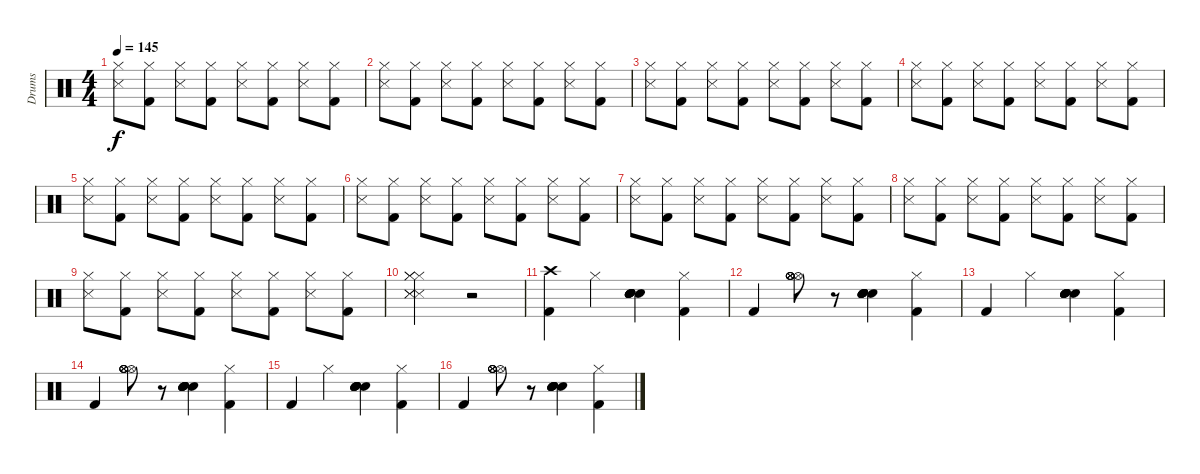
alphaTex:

\track ("Drums" "Drums") {instrument percussion}
\staff {score}
\articulation defaults
\ts (4 4)
\tempo 145
\clef neutral
\ks c
("Snare (side stick) 3" "Hi-Hat (closed)").8{dy f} ("Hi-Hat (closed)" "Kick (hit) 2").8 ("Snare (side stick) 3" "Hi-Hat (closed)").8 ("Hi-Hat (closed)" "Kick (hit) 2").8 ("Snare (side stick) 3" "Hi-Hat (closed)").8 ("Hi-Hat (closed)" "Kick (hit) 2").8 ("Snare (side stick) 3" "Hi-Hat (closed)").8 ("Hi-Hat (closed)" "Kick (hit) 2").8 |
("Snare (side stick) 3" "Hi-Hat (closed)").8 ("Hi-Hat (closed)" "Kick (hit) 2").8 ("Snare (side stick) 3" "Hi-Hat (closed)").8 ("Hi-Hat (closed)" "Kick (hit) 2").8 ("Snare (side stick) 3" "Hi-Hat (closed)").8 ("Hi-Hat (closed)" "Kick (hit) 2").8 ("Snare (side stick) 3" "Hi-Hat (closed)").8 ("Hi-Hat (closed)" "Kick (hit) 2").8 |
("Snare (side stick) 3" "Hi-Hat (closed)").8 ("Hi-Hat (closed)" "Kick (hit) 2").8 ("Snare (side stick) 3" "Hi-Hat (closed)").8 ("Hi-Hat (closed)" "Kick (hit) 2").8 ("Snare (side stick) 3" "Hi-Hat (closed)").8 ("Hi-Hat (closed)" "Kick (hit) 2").8 ("Snare (side stick) 3" "Hi-Hat (closed)").8 ("Hi-Hat (closed)" "Kick (hit) 2").8 |
("Snare (side stick) 3" "Hi-Hat (closed)").8 ("Hi-Hat (closed)" "Kick (hit) 2").8 ("Snare (side stick) 3" "Hi-Hat (closed)").8 ("Hi-Hat (closed)" "Kick (hit) 2").8 ("Snare (side stick) 3" "Hi-Hat (closed)").8 ("Hi-Hat (closed)" "Kick (hit) 2").8 ("Snare (side stick) 3" "Hi-Hat (closed)").8 ("Hi-Hat (closed)" "Kick (hit) 2").8 |
("Snare (side stick) 3" "Hi-Hat (closed)").8 ("Hi-Hat (closed)" "Kick (hit) 2").8 ("Snare (side stick) 3" "Hi-Hat (closed)").8 ("Hi-Hat (closed)" "Kick (hit) 2").8 ("Snare (side stick) 3" "Hi-Hat (closed)").8 ("Hi-Hat (closed)" "Kick (hit) 2").8 ("Snare (side stick) 3" "Hi-Hat (closed)").8 ("Hi-Hat (closed)" "Kick (hit) 2").8 |
("Snare (side stick) 3" "Hi-Hat (closed)").8 ("Hi-Hat (closed)" "Kick (hit) 2").8 ("Snare (side stick) 3" "Hi-Hat (closed)").8 ("Hi-Hat (closed)" "Kick (hit) 2").8 ("Snare (side stick) 3" "Hi-Hat (closed)").8 ("Hi-Hat (closed)" "Kick (hit) 2").8 ("Snare (side stick) 3" "Hi-Hat (closed)").8 ("Hi-Hat (closed)" "Kick (hit) 2").8 |
("Snare (side stick) 3" "Hi-Hat (closed)").8 ("Hi-Hat (closed)" "Kick (hit) 2").8 ("Snare (side stick) 3" "Hi-Hat (closed)").8 ("Hi-Hat (closed)" "Kick (hit) 2").8 ("Snare (side stick) 3" "Hi-Hat (closed)").8 ("Hi-Hat (closed)" "Kick (hit) 2").8 ("Snare (side stick) 3" "Hi-Hat (closed)").8 ("Hi-Hat (closed)" "Kick (hit) 2").8 |
("Snare (side stick) 3" "Hi-Hat (closed)").8 ("Hi-Hat (closed)" "Kick (hit) 2").8 ("Snare (side stick) 3" "Hi-Hat (closed)").8 ("Hi-Hat (closed)" "Kick (hit) 2").8 ("Snare (side stick) 3" "Hi-Hat (closed)").8 ("Hi-Hat (closed)" "Kick (hit) 2").8 ("Snare (side stick) 3" "Hi-Hat (closed)").8 ("Hi-Hat (closed)" "Kick (hit) 2").8 |
("Snare (side stick) 3" "Hi-Hat (closed)").8 ("Hi-Hat (closed)" "Kick (hit) 2").8 ("Snare (side stick) 3" "Hi-Hat (closed)").8 ("Hi-Hat (closed)" "Kick (hit) 2").8 ("Snare (side stick) 3" "Hi-Hat (closed)").8 ("Hi-Hat (closed)" "Kick (hit) 2").8 ("Snare (side stick) 3" "Hi-Hat (closed)").8 ("Hi-Hat (closed)" "Kick (hit) 2").8 |
("Hi-Hat (closed)" "Snare (side stick) 3" "Snare (side stick) 3" "Snare (side stick) 3" "Hi-Hat (closed)" "Hi-Hat (closed)").2 r.2 |
("Kick (hit) 2" "Crash high (hit)").4 "Hi-Hat (closed)".4 ("Electric Snare (hit)" "Snare (hit) 2" "Snare (hit) 2" "Snare (hit) 2" "Snare (hit) 2" "Snare (hit) 2").4 ("Kick (hit) 2" "Hi-Hat (closed)").4 |
"Kick (hit) 2".4 ("Hi-Hat (open)" "Hi-Hat (open)" "Hi-Hat (open)" "Hi-Hat (open)" "Hi-Hat (open)").8 r.8 ("Electric Snare (hit)" "Snare (hit) 2" "Snare (hit) 2" "Snare (hit) 2" "Snare (hit) 2" "Snare (hit) 2").4 ("Kick (hit) 2" "Hi-Hat (closed)").4 |
"Kick (hit) 2".4 "Hi-Hat (closed)".4 ("Electric Snare (hit)" "Snare (hit) 2" "Snare (hit) 2" "Snare (hit) 2" "Snare (hit) 2" "Snare (hit) 2").4 ("Kick (hit) 2" "Hi-Hat (closed)").4 |
"Kick (hit) 2".4 ("Hi-Hat (open)" "Hi-Hat (open)" "Hi-Hat (open)" "Hi-Hat (open)" "Hi-Hat (open)").8 r.8 ("Electric Snare (hit)" "Snare (hit) 2" "Snare (hit) 2" "Snare (hit) 2" "Snare (hit) 2" "Snare (hit) 2").4 ("Kick (hit) 2" "Hi-Hat (closed)").4 |
"Kick (hit) 2".4 "Hi-Hat (closed)".4 ("Electric Snare (hit)" "Snare (hit) 2" "Snare (hit) 2" "Snare (hit) 2" "Snare (hit) 2" "Snare (hit) 2").4 ("Kick (hit) 2" "Hi-Hat (closed)").4 |
"Kick (hit) 2".4 ("Hi-Hat (open)" "Hi-Hat (open)" "Hi-Hat (open)" "Hi-Hat (open)" "Hi-Hat (open)").8 r.8 ("Electric Snare (hit)" "Snare (hit) 2" "Snare (hit) 2" "Snare (hit) 2" "Snare (hit) 2" "Snare (hit) 2").4 ("Kick (hit) 2" "Hi-Hat (closed)").4
